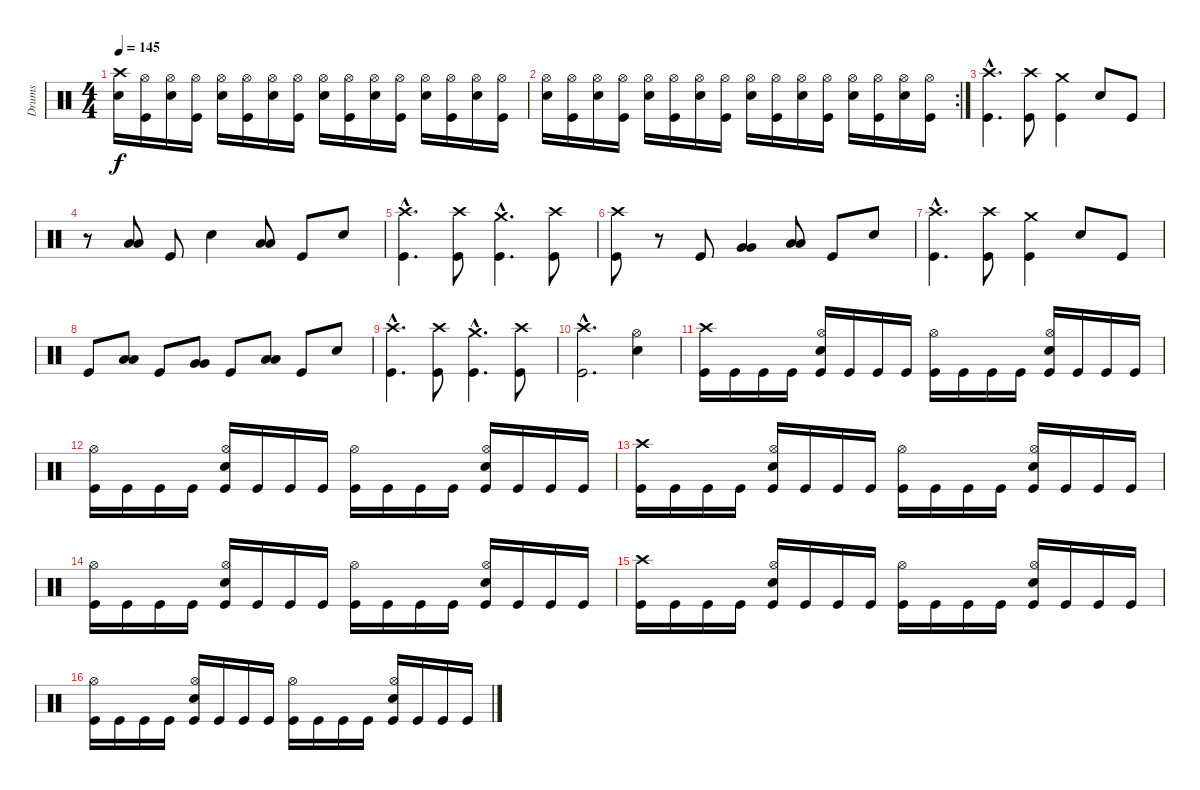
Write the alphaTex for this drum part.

\track ("Drums" "Drums") {instrument percussion}
\staff {score}
\articulation defaults
\ts (4 4)
\tempo 145
\clef neutral
\ks c
("Crash high (hit)" "Electric Snare (hit)").16{dy f} ("Hi-Hat (open)" "Kick (hit)").16 ("Hi-Hat (open)" "Electric Snare (hit)").16 ("Hi-Hat (open)" "Kick (hit)").16 ("Hi-Hat (open)" "Electric Snare (hit)").16 ("Hi-Hat (open)" "Kick (hit)").16 ("Hi-Hat (open)" "Electric Snare (hit)").16 ("Hi-Hat (open)" "Kick (hit)").16 ("Hi-Hat (open)" "Electric Snare (hit)").16 ("Hi-Hat (open)" "Kick (hit)").16 ("Hi-Hat (open)" "Electric Snare (hit)").16 ("Hi-Hat (open)" "Kick (hit)").16 ("Hi-Hat (open)" "Electric Snare (hit)").16 ("Hi-Hat (open)" "Kick (hit)").16 ("Hi-Hat (open)" "Electric Snare (hit)").16 ("Hi-Hat (open)" "Kick (hit)").16 |
\rc 2
("Hi-Hat (open)" "Electric Snare (hit)").16 ("Hi-Hat (open)" "Kick (hit)").16 ("Hi-Hat (open)" "Electric Snare (hit)").16 ("Hi-Hat (open)" "Kick (hit)").16 ("Hi-Hat (open)" "Electric Snare (hit)").16 ("Hi-Hat (open)" "Kick (hit)").16 ("Hi-Hat (open)" "Electric Snare (hit)").16 ("Hi-Hat (open)" "Kick (hit)").16 ("Hi-Hat (open)" "Electric Snare (hit)").16 ("Hi-Hat (open)" "Kick (hit)").16 ("Hi-Hat (open)" "Electric Snare (hit)").16 ("Hi-Hat (open)" "Kick (hit)").16 ("Hi-Hat (open)" "Electric Snare (hit)").16 ("Hi-Hat (open)" "Kick (hit)").16 ("Hi-Hat (open)" "Electric Snare (hit)").16 ("Hi-Hat (open)" "Kick (hit)").16 |
("Crash high (hit)"{hac} "Kick (hit)"{hac}).4{d} ("Kick (hit)" "Crash high (hit)").8 ("Kick (hit)" "Crash medium (hit)").4 "Electric Snare (hit)".8 "Kick (hit)".8 |
r.8 ("Low Floor Tom (hit)" "Low Floor Tom (hit)").8 "Kick (hit)".8 "Electric Snare (hit)".4 ("Low Floor Tom (hit)" "Low Floor Tom (hit)").8 "Kick (hit)".8 "Electric Snare (hit)".8 |
("Crash high (hit)"{hac} "Kick (hit)"{hac}).4{d} ("Kick (hit)" "Crash high (hit)").8 ("Kick (hit)"{hac} "Crash medium (hit)"{hac}).4{d} ("Crash high (hit)" "Kick (hit)").8 |
("Crash high (hit)" "Kick (hit)").8 r.8 "Kick (hit)".8 ("Very Low Tom (hit)" "Very Low Tom (hit)").4 ("Low Floor Tom (hit)" "Low Floor Tom (hit)").8 "Kick (hit)".8 "Electric Snare (hit)".8 |
("Crash high (hit)"{hac} "Kick (hit)"{hac}).4{d} ("Kick (hit)" "Crash high (hit)").8 ("Kick (hit)" "Crash medium (hit)").4 "Electric Snare (hit)".8 "Kick (hit)".8 |
"Kick (hit)".8 ("Low Floor Tom (hit)" "Low Floor Tom (hit)").8 "Kick (hit)".8 ("Very Low Tom (hit)" "Very Low Tom (hit)").8 "Kick (hit)".8 ("Low Floor Tom (hit)" "Low Floor Tom (hit)").8 "Kick (hit)".8 "Electric Snare (hit)".8 |
("Crash high (hit)"{hac} "Kick (hit)"{hac}).4{d} ("Kick (hit)" "Crash high (hit)").8 ("Kick (hit)"{hac} "Crash medium (hit)"{hac}).4{d} ("Crash high (hit)" "Kick (hit)").8 |
("Crash high (hit)"{hac} "Kick (hit)"{hac}).2{d} ("Electric Snare (hit)" "Hi-Hat (open)").4 |
("Kick (hit)" "Crash high (hit)").16 "Kick (hit)".16 "Kick (hit)".16 "Kick (hit)".16 ("Kick (hit)" "Hi-Hat (open)" "Electric Snare (hit)").16 "Kick (hit)".16 "Kick (hit)".16 "Kick (hit)".16 ("Kick (hit)" "Hi-Hat (open)").16 "Kick (hit)".16 "Kick (hit)".16 "Kick (hit)".16 ("Kick (hit)" "Hi-Hat (open)" "Electric Snare (hit)").16 "Kick (hit)".16 "Kick (hit)".16 "Kick (hit)".16 |
("Kick (hit)" "Hi-Hat (open)").16 "Kick (hit)".16 "Kick (hit)".16 "Kick (hit)".16 ("Kick (hit)" "Hi-Hat (open)" "Electric Snare (hit)").16 "Kick (hit)".16 "Kick (hit)".16 "Kick (hit)".16 ("Kick (hit)" "Hi-Hat (open)").16 "Kick (hit)".16 "Kick (hit)".16 "Kick (hit)".16 ("Kick (hit)" "Hi-Hat (open)" "Electric Snare (hit)").16 "Kick (hit)".16 "Kick (hit)".16 "Kick (hit)".16 |
("Kick (hit)" "Crash high (hit)").16 "Kick (hit)".16 "Kick (hit)".16 "Kick (hit)".16 ("Kick (hit)" "Hi-Hat (open)" "Electric Snare (hit)").16 "Kick (hit)".16 "Kick (hit)".16 "Kick (hit)".16 ("Kick (hit)" "Hi-Hat (open)").16 "Kick (hit)".16 "Kick (hit)".16 "Kick (hit)".16 ("Kick (hit)" "Hi-Hat (open)" "Electric Snare (hit)").16 "Kick (hit)".16 "Kick (hit)".16 "Kick (hit)".16 |
("Kick (hit)" "Hi-Hat (open)").16 "Kick (hit)".16 "Kick (hit)".16 "Kick (hit)".16 ("Kick (hit)" "Hi-Hat (open)" "Electric Snare (hit)").16 "Kick (hit)".16 "Kick (hit)".16 "Kick (hit)".16 ("Kick (hit)" "Hi-Hat (open)").16 "Kick (hit)".16 "Kick (hit)".16 "Kick (hit)".16 ("Kick (hit)" "Hi-Hat (open)" "Electric Snare (hit)").16 "Kick (hit)".16 "Kick (hit)".16 "Kick (hit)".16 |
("Kick (hit)" "Crash high (hit)").16 "Kick (hit)".16 "Kick (hit)".16 "Kick (hit)".16 ("Kick (hit)" "Hi-Hat (open)" "Electric Snare (hit)").16 "Kick (hit)".16 "Kick (hit)".16 "Kick (hit)".16 ("Kick (hit)" "Hi-Hat (open)").16 "Kick (hit)".16 "Kick (hit)".16 "Kick (hit)".16 ("Kick (hit)" "Hi-Hat (open)" "Electric Snare (hit)").16 "Kick (hit)".16 "Kick (hit)".16 "Kick (hit)".16 |
("Kick (hit)" "Hi-Hat (open)").16 "Kick (hit)".16 "Kick (hit)".16 "Kick (hit)".16 ("Kick (hit)" "Hi-Hat (open)" "Electric Snare (hit)").16 "Kick (hit)".16 "Kick (hit)".16 "Kick (hit)".16 ("Kick (hit)" "Hi-Hat (open)").16 "Kick (hit)".16 "Kick (hit)".16 "Kick (hit)".16 ("Kick (hit)" "Hi-Hat (open)" "Electric Snare (hit)").16 "Kick (hit)".16 "Kick (hit)".16 "Kick (hit)".16
